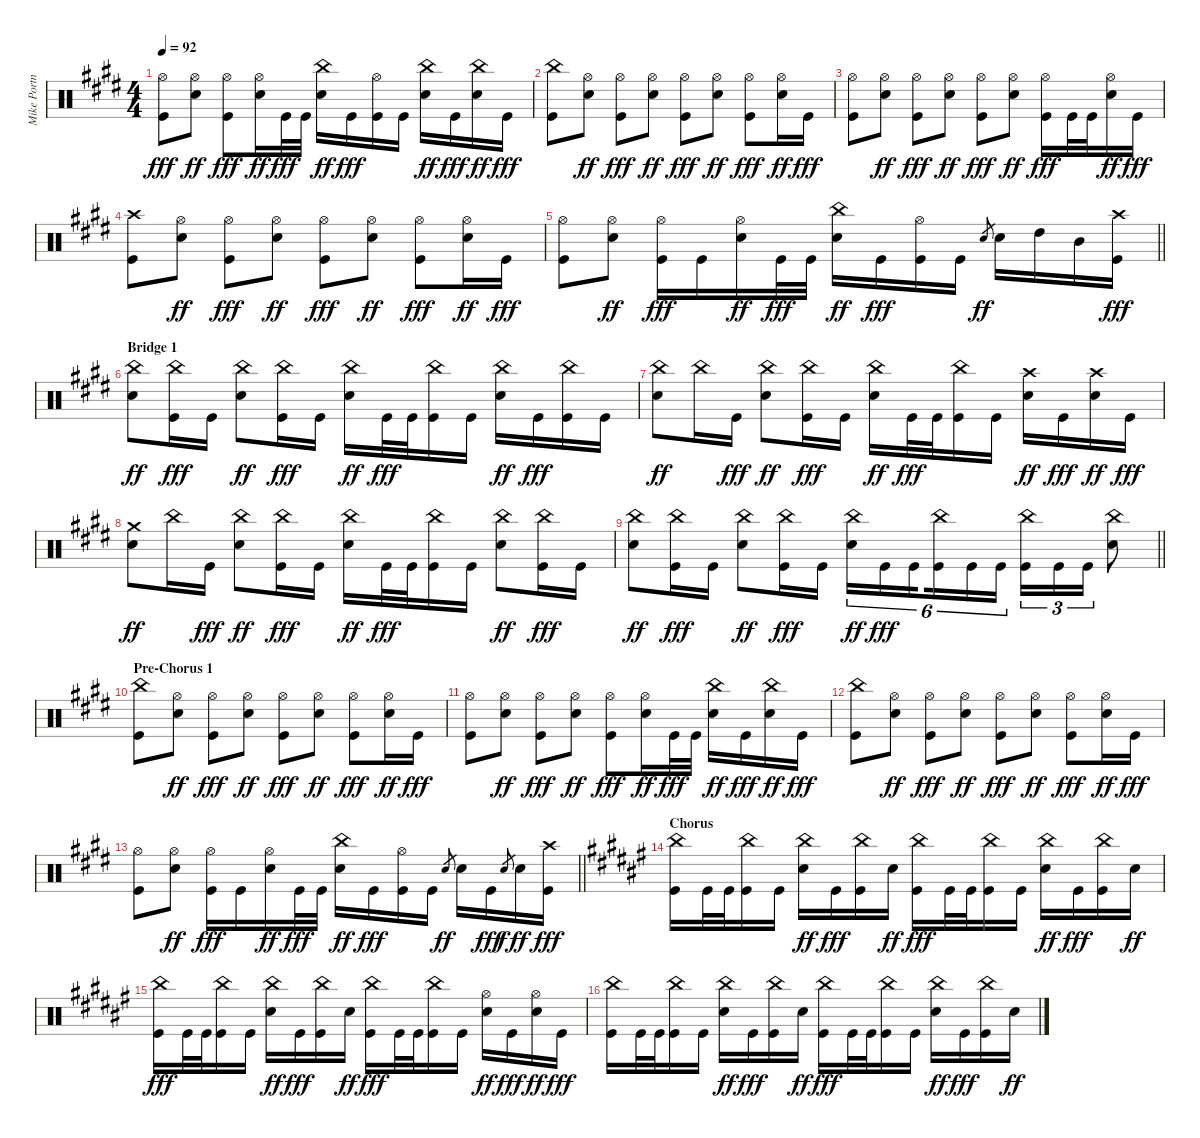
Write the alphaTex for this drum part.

\track ("Mike Portnoy" "Mike Portn") {instrument percussion}
\staff {score}
\articulation defaults
\ts (4 4)
\tempo 92
\clef neutral
\ks e
("Hi-Hat (open)" "Kick (hit)").8{dy fff} ("Hi-Hat (open)" "Electric Snare (hit)").8{dy ff} ("Hi-Hat (open)" "Kick (hit)").8{dy fff} ("Hi-Hat (open)" "Electric Snare (hit)").16{dy ff} "Kick (hit)".32{dy fff} "Kick (hit)".32 ("China (hit)" "Electric Snare (hit)").16{dy ff} "Kick (hit)".16{dy fff} ("Hi-Hat (open)" "Kick (hit)").16 "Kick (hit)".16 ("China (hit)" "Electric Snare (hit)").16{dy ff} "Kick (hit)".16{dy fff} ("China (hit)" "Electric Snare (hit)").16{dy ff} "Kick (hit)".16{dy fff} |
("China (hit)" "Kick (hit)").8 ("Hi-Hat (open)" "Electric Snare (hit)").8{dy ff} ("Hi-Hat (open)" "Kick (hit)").8{dy fff} ("Hi-Hat (open)" "Electric Snare (hit)").8{dy ff} ("Hi-Hat (open)" "Kick (hit)").8{dy fff} ("Hi-Hat (open)" "Electric Snare (hit)").8{dy ff} ("Hi-Hat (open)" "Kick (hit)").8{dy fff} ("Hi-Hat (open)" "Electric Snare (hit)").16{dy ff} "Kick (hit)".16{dy fff} |
("Hi-Hat (open)" "Kick (hit)").8 ("Hi-Hat (open)" "Electric Snare (hit)").8{dy ff} ("Hi-Hat (open)" "Kick (hit)").8{dy fff} ("Hi-Hat (open)" "Electric Snare (hit)").8{dy ff} ("Hi-Hat (open)" "Kick (hit)").8{dy fff} ("Hi-Hat (open)" "Electric Snare (hit)").8{dy ff} ("Hi-Hat (open)" "Kick (hit)").16{dy fff} "Kick (hit)".32 "Kick (hit)".32 ("Hi-Hat (open)" "Electric Snare (hit)").16{dy ff} "Kick (hit)".16{dy fff} |
("Crash high (hit)" "Kick (hit)").8 ("Hi-Hat (open)" "Electric Snare (hit)").8{dy ff} ("Hi-Hat (open)" "Kick (hit)").8{dy fff} ("Hi-Hat (open)" "Electric Snare (hit)").8{dy ff} ("Hi-Hat (open)" "Kick (hit)").8{dy fff} ("Hi-Hat (open)" "Electric Snare (hit)").8{dy ff} ("Hi-Hat (open)" "Kick (hit)").8{dy fff} ("Hi-Hat (open)" "Electric Snare (hit)").16{dy ff} "Kick (hit)".16{dy fff} |
\barLineRight lightlight
("Hi-Hat (open)" "Kick (hit)").8 ("Hi-Hat (open)" "Electric Snare (hit)").8{dy ff} ("Hi-Hat (open)" "Kick (hit)").16{dy fff} "Kick (hit)".16 ("Hi-Hat (open)" "Electric Snare (hit)").16{dy ff} "Kick (hit)".32{dy fff} "Kick (hit)".32 ("China (hit)" "Electric Snare (hit)").16{dy ff} "Kick (hit)".16{dy fff} ("Hi-Hat (open)" "Kick (hit)").16 "Kick (hit)".16 "Electric Snare (hit)".8{gr dy ff} "Electric Snare (hit)".16 "High Tom (hit)".16 "Mid Tom (hit)".16 ("Crash high (hit)" "Kick (hit)").16{dy fff} |
\section ("" "Bridge 1")
("China (hit)" "Electric Snare (hit)").8{dy ff} ("China (hit)" "Kick (hit)").16{dy fff} "Kick (hit)".16 ("China (hit)" "Electric Snare (hit)").8{dy ff} ("China (hit)" "Kick (hit)").16{dy fff} "Kick (hit)".16 ("China (hit)" "Electric Snare (hit)").16{dy ff} "Kick (hit)".32{dy fff} "Kick (hit)".32 ("China (hit)" "Kick (hit)").16 "Kick (hit)".16 ("China (hit)" "Electric Snare (hit)").16{dy ff} "Kick (hit)".16{dy fff} ("China (hit)" "Kick (hit)").16 "Kick (hit)".16 |
("China (hit)" "Electric Snare (hit)").8{dy ff} "China (hit)".16 "Kick (hit)".16{dy fff} ("China (hit)" "Electric Snare (hit)").8{dy ff} ("China (hit)" "Kick (hit)").16{dy fff} "Kick (hit)".16 ("China (hit)" "Electric Snare (hit)").16{dy ff} "Kick (hit)".32{dy fff} "Kick (hit)".32 ("China (hit)" "Kick (hit)").16 "Kick (hit)".16 ("Crash high (hit)" "Electric Snare (hit)").16{dy ff} "Kick (hit)".16{dy fff} ("Crash high (hit)" "Electric Snare (hit)").16{dy ff} "Kick (hit)".16{dy fff} |
("Crash medium (hit)" "Electric Snare (hit)").8{dy ff} "China (hit)".16 "Kick (hit)".16{dy fff} ("China (hit)" "Electric Snare (hit)").8{dy ff} ("China (hit)" "Kick (hit)").16{dy fff} "Kick (hit)".16 ("China (hit)" "Electric Snare (hit)").16{dy ff} "Kick (hit)".32{dy fff} "Kick (hit)".32 ("China (hit)" "Kick (hit)").16 "Kick (hit)".16 ("China (hit)" "Electric Snare (hit)").8{dy ff} ("China (hit)" "Kick (hit)").16{dy fff} "Kick (hit)".16 |
\barLineRight lightlight
("China (hit)" "Electric Snare (hit)").8{dy ff} ("China (hit)" "Kick (hit)").16{dy fff} "Kick (hit)".16 ("China (hit)" "Electric Snare (hit)").8{dy ff} ("China (hit)" "Kick (hit)").16{dy fff} "Kick (hit)".16 ("China (hit)" "Electric Snare (hit)").16{tu (6 4) dy ff} "Kick (hit)".16{tu (6 4) dy fff} "Kick (hit)".16{tu (6 4) beam splitsecondary} ("China (hit)" "Kick (hit)").16{tu (6 4)} "Kick (hit)".16{tu (6 4)} "Kick (hit)".16{tu (6 4)} ("China (hit)" "Kick (hit)").16{tu (3 2)} "Kick (hit)".16{tu (3 2)} "Kick (hit)".16{tu (3 2)} ("China (hit)" "Electric Snare (hit)").8 |
\section ("" "Pre-Chorus 1")
("China (hit)" "Kick (hit)").8 ("Hi-Hat (open)" "Electric Snare (hit)").8{dy ff} ("Hi-Hat (open)" "Kick (hit)").8{dy fff} ("Hi-Hat (open)" "Electric Snare (hit)").8{dy ff} ("Hi-Hat (open)" "Kick (hit)").8{dy fff} ("Hi-Hat (open)" "Electric Snare (hit)").8{dy ff} ("Hi-Hat (open)" "Kick (hit)").8{dy fff} ("Hi-Hat (open)" "Electric Snare (hit)").16{dy ff} "Kick (hit)".16{dy fff} |
("Hi-Hat (open)" "Kick (hit)").8 ("Hi-Hat (open)" "Electric Snare (hit)").8{dy ff} ("Hi-Hat (open)" "Kick (hit)").8{dy fff} ("Hi-Hat (open)" "Electric Snare (hit)").8{dy ff} ("Hi-Hat (open)" "Kick (hit)").8{dy fff} ("Hi-Hat (open)" "Electric Snare (hit)").16{dy ff} "Kick (hit)".32{dy fff} "Kick (hit)".32 ("China (hit)" "Electric Snare (hit)").16{dy ff} "Kick (hit)".16{dy fff} ("China (hit)" "Electric Snare (hit)").16{dy ff} "Kick (hit)".16{dy fff} |
("China (hit)" "Kick (hit)").8 ("Hi-Hat (open)" "Electric Snare (hit)").8{dy ff} ("Hi-Hat (open)" "Kick (hit)").8{dy fff} ("Hi-Hat (open)" "Electric Snare (hit)").8{dy ff} ("Hi-Hat (open)" "Kick (hit)").8{dy fff} ("Hi-Hat (open)" "Electric Snare (hit)").8{dy ff} ("Hi-Hat (open)" "Kick (hit)").8{dy fff} ("Hi-Hat (open)" "Electric Snare (hit)").16{dy ff} "Kick (hit)".16{dy fff} |
\barLineRight lightlight
("Hi-Hat (open)" "Kick (hit)").8 ("Hi-Hat (open)" "Electric Snare (hit)").8{dy ff} ("Hi-Hat (open)" "Kick (hit)").16{dy fff} "Kick (hit)".16 ("Hi-Hat (open)" "Electric Snare (hit)").16{dy ff} "Kick (hit)".32{dy fff} "Kick (hit)".32 ("China (hit)" "Electric Snare (hit)").16{dy ff} "Kick (hit)".16{dy fff} ("Hi-Hat (open)" "Kick (hit)").16 "Kick (hit)".16 "Electric Snare (hit)".8{gr dy ff} "Electric Snare (hit)".16 "Kick (hit)".16{dy fff} "Electric Snare (hit)".8{gr dy f} "Electric Snare (hit)".16{dy ff} ("Crash high (hit)" "Kick (hit)").16{dy fff} |
\section ("" "Chorus")
\ks f#
("China (hit)" "Kick (hit)").16 "Kick (hit)".32 "Kick (hit)".32 ("China (hit)" "Kick (hit)").16 "Kick (hit)".16 ("China (hit)" "Electric Snare (hit)").16{dy ff} "Kick (hit)".16{dy fff} ("China (hit)" "Kick (hit)").16 "Electric Snare (hit)".16{dy ff} ("China (hit)" "Kick (hit)").16{dy fff} "Kick (hit)".32 "Kick (hit)".32 ("China (hit)" "Kick (hit)").16 "Kick (hit)".16 ("China (hit)" "Electric Snare (hit)").16{dy ff} "Kick (hit)".16{dy fff} ("China (hit)" "Kick (hit)").16 "Electric Snare (hit)".16{dy ff} |
("China (hit)" "Kick (hit)").16{dy fff} "Kick (hit)".32 "Kick (hit)".32 ("China (hit)" "Kick (hit)").16 "Kick (hit)".16 ("China (hit)" "Electric Snare (hit)").16{dy ff} "Kick (hit)".16{dy fff} ("China (hit)" "Kick (hit)").16 "Electric Snare (hit)".16{dy ff} ("China (hit)" "Kick (hit)").16{dy fff} "Kick (hit)".32 "Kick (hit)".32 ("China (hit)" "Kick (hit)").16 "Kick (hit)".16 ("Hi-Hat (open)" "Electric Snare (hit)").16{dy ff} "Kick (hit)".16{dy fff} ("Hi-Hat (open)" "Electric Snare (hit)").16{dy ff} "Kick (hit)".16{dy fff} |
("China (hit)" "Kick (hit)").16 "Kick (hit)".32 "Kick (hit)".32 ("China (hit)" "Kick (hit)").16 "Kick (hit)".16 ("China (hit)" "Electric Snare (hit)").16{dy ff} "Kick (hit)".16{dy fff} ("China (hit)" "Kick (hit)").16 "Electric Snare (hit)".16{dy ff} ("China (hit)" "Kick (hit)").16{dy fff} "Kick (hit)".32 "Kick (hit)".32 ("China (hit)" "Kick (hit)").16 "Kick (hit)".16 ("China (hit)" "Electric Snare (hit)").16{dy ff} "Kick (hit)".16{dy fff} ("China (hit)" "Kick (hit)").16 "Electric Snare (hit)".16{dy ff}
